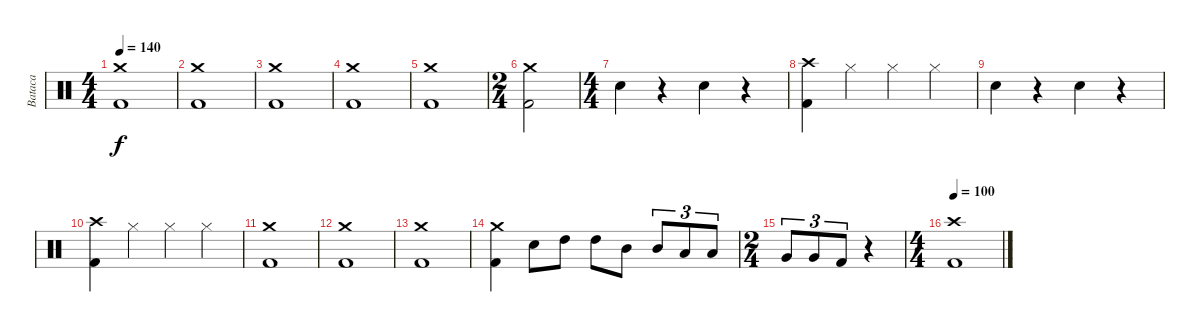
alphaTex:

\track ("Bataca" "Bataca") {instrument percussion}
\staff {score}
\articulation defaults
\ts (4 4)
\tempo 140
\clef neutral
\ks c
("Crash medium (hit)" "Kick (hit) 2").1{dy f} |
("Crash medium (hit)" "Kick (hit) 2").1 |
("Crash medium (hit)" "Kick (hit) 2").1 |
("Crash medium (hit)" "Kick (hit) 2").1 |
("Crash medium (hit)" "Kick (hit) 2").1 |
\ts (2 4)
("Crash medium (hit)" "Kick (hit) 2").2 |
\ts (4 4)
"Electric Snare (hit)".4 r.4 "Electric Snare (hit)".4 r.4 |
("Crash high (hit)" "Kick (hit) 2").4 "Hi-Hat (closed)".4 "Hi-Hat (closed)".4 "Hi-Hat (closed)".4 |
"Electric Snare (hit)".4 r.4 "Electric Snare (hit)".4 r.4 |
("Crash high (hit)" "Kick (hit) 2").4 "Hi-Hat (closed)".4 "Hi-Hat (closed)".4 "Hi-Hat (closed)".4 |
("Crash medium (hit)" "Kick (hit) 2").1 |
("Crash medium (hit)" "Kick (hit) 2").1 |
("Crash medium (hit)" "Kick (hit) 2").1 |
("Crash medium (hit)" "Kick (hit) 2").4 "Electric Snare (hit)".8 "High Tom (hit)".8 "High Tom (hit)".8 "Mid Tom (hit)".8 "Mid Tom (hit)".8{tu (3 2)} "Low Tom (hit)".8{tu (3 2)} "Low Tom (hit)".8{tu (3 2)} |
\ts (2 4)
"Very Low Tom (hit)".8{tu (3 2)} "Very Low Tom (hit)".8{tu (3 2)} "Kick (hit) 2".8{tu (3 2)} r.4 |
\ts (4 4)
\tempo 100
("Crash high (hit)" "Kick (hit) 2").1
